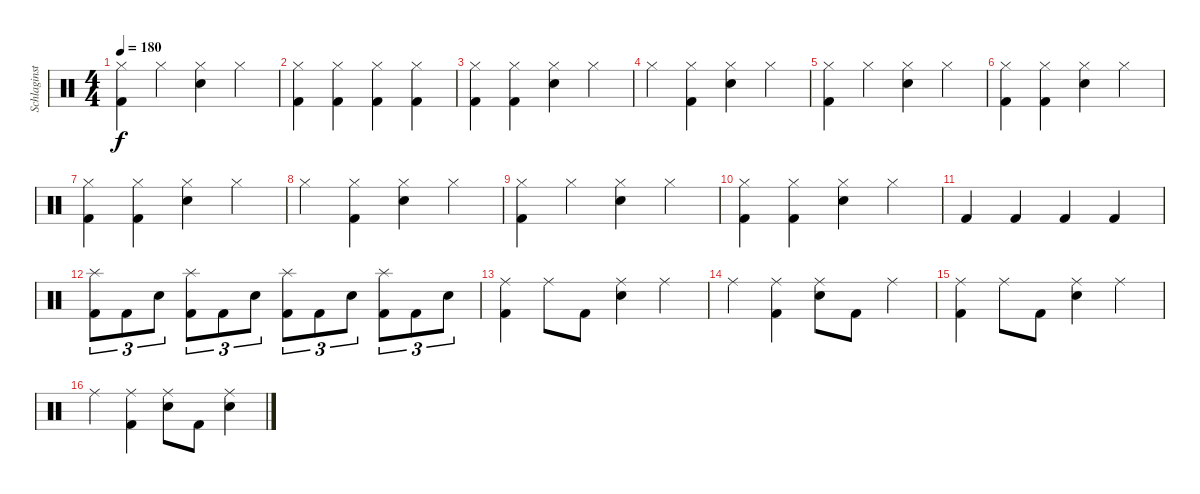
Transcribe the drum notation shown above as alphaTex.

\track ("Schlaginstrumente - Auswahl" "Schlaginst") {instrument percussion}
\staff {score}
\articulation defaults
\ts (4 4)
\tempo 180
\clef neutral
\ks c
("Hi-Hat (closed)" "Kick (hit) 2").4{dy f} "Hi-Hat (closed)".4 ("Hi-Hat (closed)" "Snare (hit) 2").4 "Hi-Hat (closed)".4 |
("Hi-Hat (closed)" "Kick (hit) 2").4 ("Hi-Hat (closed)" "Kick (hit) 2").4 ("Hi-Hat (closed)" "Kick (hit) 2").4 ("Hi-Hat (closed)" "Kick (hit) 2").4 |
("Hi-Hat (closed)" "Kick (hit) 2").4 ("Hi-Hat (closed)" "Kick (hit) 2").4 ("Hi-Hat (closed)" "Snare (hit) 2").4 "Hi-Hat (closed)".4 |
"Hi-Hat (closed)".4 ("Hi-Hat (closed)" "Kick (hit) 2").4 ("Hi-Hat (closed)" "Snare (hit) 2").4 "Hi-Hat (closed)".4 |
("Hi-Hat (closed)" "Kick (hit) 2").4 "Hi-Hat (closed)".4 ("Hi-Hat (closed)" "Snare (hit) 2").4 "Hi-Hat (closed)".4 |
("Hi-Hat (closed)" "Kick (hit) 2").4 ("Hi-Hat (closed)" "Kick (hit) 2").4 ("Hi-Hat (closed)" "Snare (hit) 2").4 "Hi-Hat (closed)".4 |
("Hi-Hat (closed)" "Kick (hit) 2").4 ("Hi-Hat (closed)" "Kick (hit) 2").4 ("Hi-Hat (closed)" "Snare (hit) 2").4 "Hi-Hat (closed)".4 |
"Hi-Hat (closed)".4 ("Hi-Hat (closed)" "Kick (hit) 2").4 ("Hi-Hat (closed)" "Snare (hit) 2").4 "Hi-Hat (closed)".4 |
("Hi-Hat (closed)" "Kick (hit) 2").4 "Hi-Hat (closed)".4 ("Hi-Hat (closed)" "Snare (hit) 2").4 "Hi-Hat (closed)".4 |
("Hi-Hat (closed)" "Kick (hit) 2").4 ("Hi-Hat (closed)" "Kick (hit) 2").4 ("Hi-Hat (closed)" "Snare (hit) 2").4 "Hi-Hat (closed)".4 |
"Kick (hit) 2".4 "Kick (hit) 2".4 "Kick (hit) 2".4 "Kick (hit) 2".4 |
("Splash (hit)" "Kick (hit) 2").8{tu (3 2)} "Kick (hit) 2".8{tu (3 2)} "Snare (hit) 2".8{tu (3 2)} ("Splash (hit)" "Kick (hit) 2").8{tu (3 2)} "Kick (hit) 2".8{tu (3 2)} "Snare (hit) 2".8{tu (3 2)} ("Splash (hit)" "Kick (hit) 2").8{tu (3 2)} "Kick (hit) 2".8{tu (3 2)} "Snare (hit) 2".8{tu (3 2)} ("Splash (hit)" "Kick (hit) 2").8{tu (3 2)} "Kick (hit) 2".8{tu (3 2)} "Snare (hit) 2".8{tu (3 2)} |
("Ride (middle)" "Kick (hit) 2").4 "Ride (middle)".8 "Kick (hit) 2".8 ("Ride (middle)" "Snare (hit) 2").4 "Ride (middle)".4 |
"Ride (middle)".4 ("Ride (middle)" "Kick (hit) 2").4 ("Ride (middle)" "Snare (hit) 2").8 "Kick (hit) 2".8 "Ride (middle)".4 |
("Ride (middle)" "Kick (hit) 2").4 "Ride (middle)".8 "Kick (hit) 2".8 ("Ride (middle)" "Snare (hit) 2").4 "Ride (middle)".4 |
"Ride (middle)".4 ("Ride (middle)" "Kick (hit) 2").4 ("Ride (middle)" "Snare (hit) 2").8 "Kick (hit) 2".8 ("Ride (middle)" "Snare (hit) 2").4
